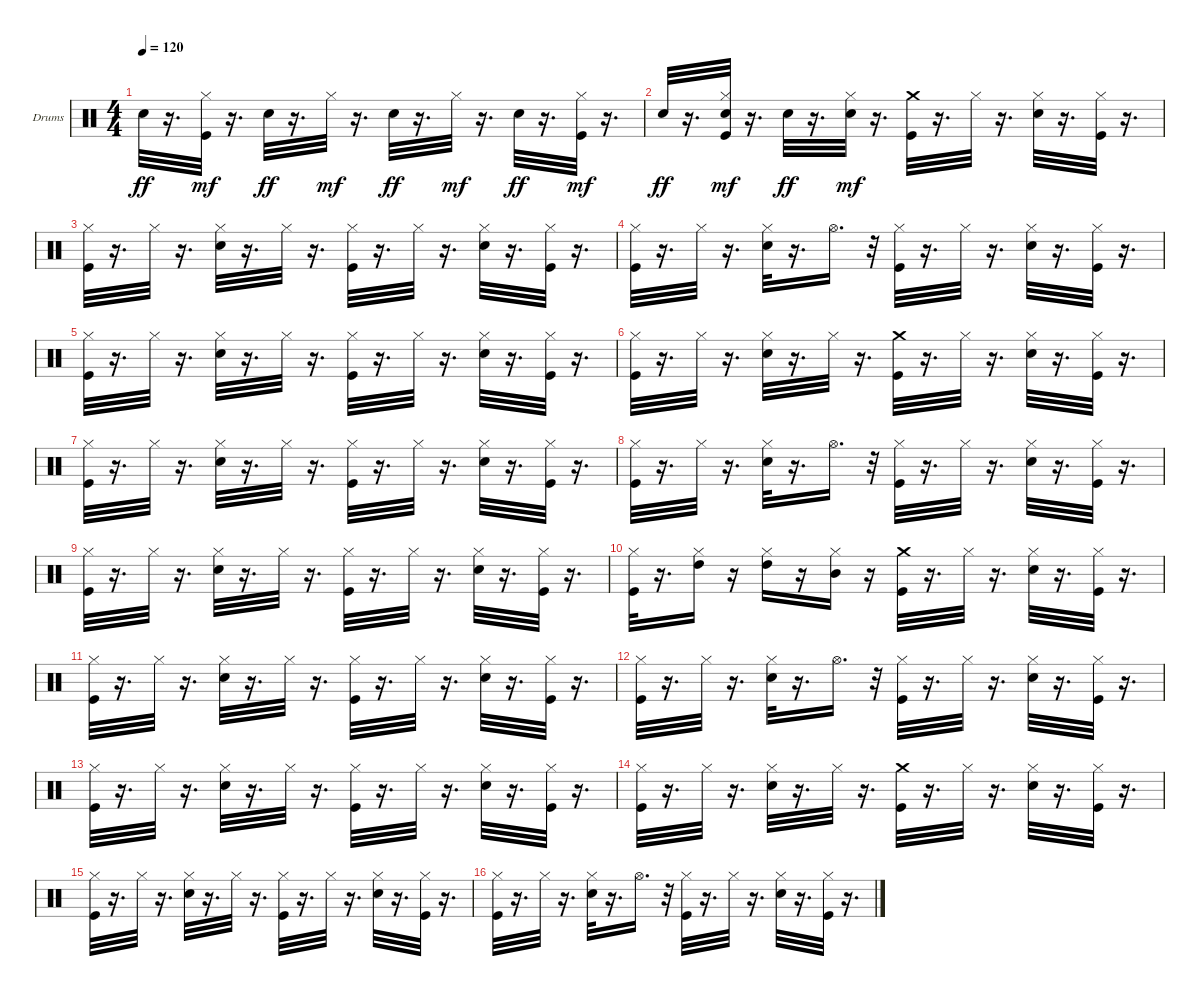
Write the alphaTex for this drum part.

\bracketExtendMode groupsimilarinstruments
\firstSystemTrackNameOrientation horizontal
\otherSystemsTrackNameOrientation horizontal
\track ("Ударные" "Drums") {instrument percussion}
\staff {score}
\articulation defaults
\ts (4 4)
\tempo 120
\clef neutral
\ks c "Snare (hit) 2".32{dy ff}
r.16{d} ("Hi-Hat (closed)" "Kick (hit)").32{dy mf} r.16{d} "Snare (hit) 2".32{dy ff} r.16{d} "Hi-Hat (closed)".32{dy mf} r.16{d} "Snare (hit) 2".32{dy ff} r.16{d} "Hi-Hat (closed)".32{dy mf} r.16{d} "Snare (hit) 2".32{dy ff} r.16{d} ("Hi-Hat (closed)" "Kick (hit)").32{dy mf} r.16{d} |
"Snare (hit) 2".32{dy ff} r.16{d} ("Hi-Hat (closed)" "Snare (hit) 2" "Kick (hit)").32{dy mf} r.16{d} "Snare (hit) 2".32{dy ff} r.16{d} ("Hi-Hat (closed)" "Snare (hit) 2").32{dy mf} r.16{d} ("Crash medium (hit)" "Kick (hit)").32 r.16{d} "Hi-Hat (closed)".32 r.16{d} ("Hi-Hat (closed)" "Snare (hit) 2").32 r.16{d} ("Hi-Hat (closed)" "Kick (hit)").32 r.16{d} |
("Hi-Hat (closed)" "Kick (hit)").32 r.16{d} "Hi-Hat (closed)".32 r.16{d} ("Hi-Hat (closed)" "Snare (hit) 2").32 r.16{d} "Hi-Hat (closed)".32 r.16{d} ("Hi-Hat (closed)" "Kick (hit)").32 r.16{d} "Hi-Hat (closed)".32 r.16{d} ("Hi-Hat (closed)" "Snare (hit) 2").32 r.16{d} ("Hi-Hat (closed)" "Kick (hit)").32 r.16{d} |
("Hi-Hat (closed)" "Kick (hit)").32 r.16{d} "Hi-Hat (closed)".32 r.16{d} ("Hi-Hat (closed)" "Snare (hit) 2").32 r.16{d} "Hi-Hat (open)".16{d} r.32 ("Hi-Hat (closed)" "Kick (hit)").32 r.16{d} "Hi-Hat (closed)".32 r.16{d} ("Hi-Hat (closed)" "Snare (hit) 2").32 r.16{d} ("Hi-Hat (closed)" "Kick (hit)").32 r.16{d} |
("Hi-Hat (closed)" "Kick (hit)").32 r.16{d} "Hi-Hat (closed)".32 r.16{d} ("Hi-Hat (closed)" "Snare (hit) 2").32 r.16{d} "Hi-Hat (closed)".32 r.16{d} ("Hi-Hat (closed)" "Kick (hit)").32 r.16{d} "Hi-Hat (closed)".32 r.16{d} ("Hi-Hat (closed)" "Snare (hit) 2").32 r.16{d} ("Hi-Hat (closed)" "Kick (hit)").32 r.16{d} |
("Hi-Hat (closed)" "Kick (hit)").32 r.16{d} "Hi-Hat (closed)".32 r.16{d} ("Hi-Hat (closed)" "Snare (hit) 2").32 r.16{d} "Hi-Hat (closed)".32 r.16{d} ("Crash medium (hit)" "Kick (hit)").32 r.16{d} "Hi-Hat (closed)".32 r.16{d} ("Hi-Hat (closed)" "Snare (hit) 2").32 r.16{d} ("Hi-Hat (closed)" "Kick (hit)").32 r.16{d} |
("Hi-Hat (closed)" "Kick (hit)").32 r.16{d} "Hi-Hat (closed)".32 r.16{d} ("Hi-Hat (closed)" "Snare (hit) 2").32 r.16{d} "Hi-Hat (closed)".32 r.16{d} ("Hi-Hat (closed)" "Kick (hit)").32 r.16{d} "Hi-Hat (closed)".32 r.16{d} ("Hi-Hat (closed)" "Snare (hit) 2").32 r.16{d} ("Hi-Hat (closed)" "Kick (hit)").32 r.16{d} |
("Hi-Hat (closed)" "Kick (hit)").32 r.16{d} "Hi-Hat (closed)".32 r.16{d} ("Hi-Hat (closed)" "Snare (hit) 2").32 r.16{d} "Hi-Hat (open)".16{d} r.32 ("Hi-Hat (closed)" "Kick (hit)").32 r.16{d} "Hi-Hat (closed)".32 r.16{d} ("Hi-Hat (closed)" "Snare (hit) 2").32 r.16{d} ("Hi-Hat (closed)" "Kick (hit)").32 r.16{d} |
("Hi-Hat (closed)" "Kick (hit)").32 r.16{d} "Hi-Hat (closed)".32 r.16{d} ("Hi-Hat (closed)" "Snare (hit) 2").32 r.16{d} "Hi-Hat (closed)".32 r.16{d} ("Hi-Hat (closed)" "Kick (hit)").32 r.16{d} "Hi-Hat (closed)".32 r.16{d} ("Hi-Hat (closed)" "Snare (hit) 2").32 r.16{d} ("Hi-Hat (closed)" "Kick (hit)").32 r.16{d} |
("Hi-Hat (closed)" "Kick (hit)").32 r.16{d} ("Hi-Hat (closed)" "High Tom (hit)").16 r.16 ("Hi-Hat (closed)" "High Tom (hit)").16 r.16 ("Hi-Hat (closed)" "Mid Tom (hit)").16 r.16 ("Crash medium (hit)" "Kick (hit)").32 r.16{d} "Hi-Hat (closed)".32 r.16{d} ("Hi-Hat (closed)" "Snare (hit) 2").32 r.16{d} ("Hi-Hat (closed)" "Kick (hit)").32 r.16{d} |
("Hi-Hat (closed)" "Kick (hit)").32 r.16{d} "Hi-Hat (closed)".32 r.16{d} ("Hi-Hat (closed)" "Snare (hit) 2").32 r.16{d} "Hi-Hat (closed)".32 r.16{d} ("Hi-Hat (closed)" "Kick (hit)").32 r.16{d} "Hi-Hat (closed)".32 r.16{d} ("Hi-Hat (closed)" "Snare (hit) 2").32 r.16{d} ("Hi-Hat (closed)" "Kick (hit)").32 r.16{d} |
("Hi-Hat (closed)" "Kick (hit)").32 r.16{d} "Hi-Hat (closed)".32 r.16{d} ("Hi-Hat (closed)" "Snare (hit) 2").32 r.16{d} "Hi-Hat (open)".16{d} r.32 ("Hi-Hat (closed)" "Kick (hit)").32 r.16{d} "Hi-Hat (closed)".32 r.16{d} ("Hi-Hat (closed)" "Snare (hit) 2").32 r.16{d} ("Hi-Hat (closed)" "Kick (hit)").32 r.16{d} |
("Hi-Hat (closed)" "Kick (hit)").32 r.16{d} "Hi-Hat (closed)".32 r.16{d} ("Hi-Hat (closed)" "Snare (hit) 2").32 r.16{d} "Hi-Hat (closed)".32 r.16{d} ("Hi-Hat (closed)" "Kick (hit)").32 r.16{d} "Hi-Hat (closed)".32 r.16{d} ("Hi-Hat (closed)" "Snare (hit) 2").32 r.16{d} ("Hi-Hat (closed)" "Kick (hit)").32 r.16{d} |
("Hi-Hat (closed)" "Kick (hit)").32 r.16{d} "Hi-Hat (closed)".32 r.16{d} ("Hi-Hat (closed)" "Snare (hit) 2").32 r.16{d} "Hi-Hat (closed)".32 r.16{d} ("Crash medium (hit)" "Kick (hit)").32 r.16{d} "Hi-Hat (closed)".32 r.16{d} ("Hi-Hat (closed)" "Snare (hit) 2").32 r.16{d} ("Hi-Hat (closed)" "Kick (hit)").32 r.16{d} |
("Hi-Hat (closed)" "Kick (hit)").32 r.16{d} "Hi-Hat (closed)".32 r.16{d} ("Hi-Hat (closed)" "Snare (hit) 2").32 r.16{d} "Hi-Hat (closed)".32 r.16{d} ("Hi-Hat (closed)" "Kick (hit)").32 r.16{d} "Hi-Hat (closed)".32 r.16{d} ("Hi-Hat (closed)" "Snare (hit) 2").32 r.16{d} ("Hi-Hat (closed)" "Kick (hit)").32 r.16{d} |
("Hi-Hat (closed)" "Kick (hit)").32 r.16{d} "Hi-Hat (closed)".32 r.16{d} ("Hi-Hat (closed)" "Snare (hit) 2").32 r.16{d} "Hi-Hat (open)".16{d} r.32 ("Hi-Hat (closed)" "Kick (hit)").32 r.16{d} "Hi-Hat (closed)".32 r.16{d} ("Hi-Hat (closed)" "Snare (hit) 2").32 r.16{d} ("Hi-Hat (closed)" "Kick (hit)").32 r.16{d}
